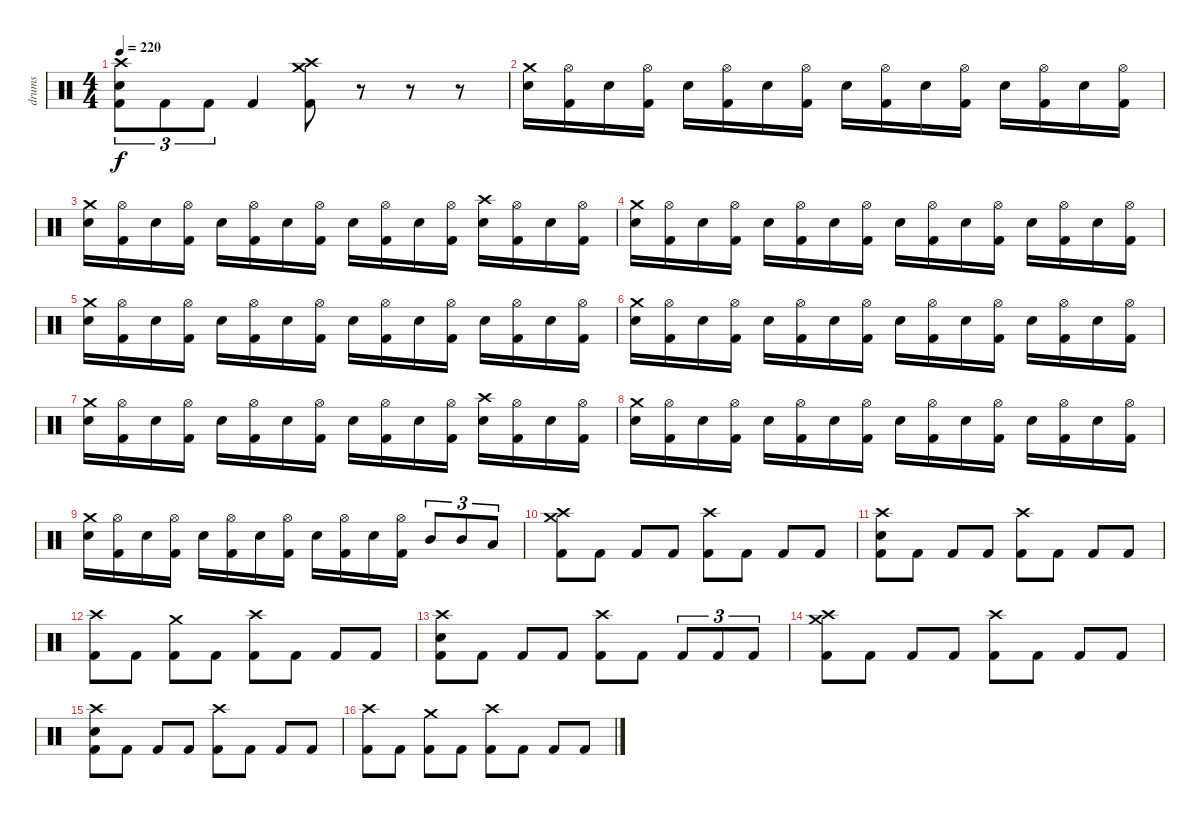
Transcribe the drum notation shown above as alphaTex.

\track ("drums" "drums") {instrument percussion}
\staff {score}
\articulation defaults
\ts (4 4)
\tempo 220
\clef neutral
\ks c
("Crash high (hit)" "Electric Snare (hit)" "Kick (hit) 2").8{tu (3 2) dy f} "Kick (hit) 2".8{tu (3 2)} "Kick (hit) 2".8{tu (3 2)} "Kick (hit) 2".4 ("Crash high (hit)" "Crash medium (hit)" "Kick (hit) 2").8 r.8 r.8 r.8 |
("Crash medium (hit)" "Electric Snare (hit)").16 ("Hi-Hat (open)" "Kick (hit) 2").16 "Electric Snare (hit)".16 ("Hi-Hat (open)" "Kick (hit) 2").16 "Electric Snare (hit)".16 ("Hi-Hat (open)" "Kick (hit) 2").16 "Electric Snare (hit)".16 ("Hi-Hat (open)" "Kick (hit) 2").16 "Electric Snare (hit)".16 ("Hi-Hat (open)" "Kick (hit) 2").16 "Electric Snare (hit)".16 ("Hi-Hat (open)" "Kick (hit) 2").16 "Electric Snare (hit)".16 ("Hi-Hat (open)" "Kick (hit) 2").16 "Electric Snare (hit)".16 ("Hi-Hat (open)" "Kick (hit) 2").16 |
("Crash medium (hit)" "Electric Snare (hit)").16 ("Hi-Hat (open)" "Kick (hit) 2").16 "Electric Snare (hit)".16 ("Hi-Hat (open)" "Kick (hit) 2").16 "Electric Snare (hit)".16 ("Hi-Hat (open)" "Kick (hit) 2").16 "Electric Snare (hit)".16 ("Hi-Hat (open)" "Kick (hit) 2").16 "Electric Snare (hit)".16 ("Hi-Hat (open)" "Kick (hit) 2").16 "Electric Snare (hit)".16 ("Hi-Hat (open)" "Kick (hit) 2").16 ("Crash high (hit)" "Electric Snare (hit)").16 ("Hi-Hat (open)" "Kick (hit) 2").16 "Electric Snare (hit)".16 ("Hi-Hat (open)" "Kick (hit) 2").16 |
("Crash medium (hit)" "Electric Snare (hit)").16 ("Hi-Hat (open)" "Kick (hit) 2").16 "Electric Snare (hit)".16 ("Hi-Hat (open)" "Kick (hit) 2").16 "Electric Snare (hit)".16 ("Hi-Hat (open)" "Kick (hit) 2").16 "Electric Snare (hit)".16 ("Hi-Hat (open)" "Kick (hit) 2").16 "Electric Snare (hit)".16 ("Hi-Hat (open)" "Kick (hit) 2").16 "Electric Snare (hit)".16 ("Hi-Hat (open)" "Kick (hit) 2").16 "Electric Snare (hit)".16 ("Hi-Hat (open)" "Kick (hit) 2").16 "Electric Snare (hit)".16 ("Hi-Hat (open)" "Kick (hit) 2").16 |
("Crash medium (hit)" "Electric Snare (hit)").16 ("Hi-Hat (open)" "Kick (hit) 2").16 "Electric Snare (hit)".16 ("Hi-Hat (open)" "Kick (hit) 2").16 "Electric Snare (hit)".16 ("Hi-Hat (open)" "Kick (hit) 2").16 "Electric Snare (hit)".16 ("Hi-Hat (open)" "Kick (hit) 2").16 "Electric Snare (hit)".16 ("Hi-Hat (open)" "Kick (hit) 2").16 "Electric Snare (hit)".16 ("Hi-Hat (open)" "Kick (hit) 2").16 "Electric Snare (hit)".16 ("Hi-Hat (open)" "Kick (hit) 2").16 "Electric Snare (hit)".16 ("Hi-Hat (open)" "Kick (hit) 2").16 |
("Crash medium (hit)" "Electric Snare (hit)").16 ("Hi-Hat (open)" "Kick (hit) 2").16 "Electric Snare (hit)".16 ("Hi-Hat (open)" "Kick (hit) 2").16 "Electric Snare (hit)".16 ("Hi-Hat (open)" "Kick (hit) 2").16 "Electric Snare (hit)".16 ("Hi-Hat (open)" "Kick (hit) 2").16 "Electric Snare (hit)".16 ("Hi-Hat (open)" "Kick (hit) 2").16 "Electric Snare (hit)".16 ("Hi-Hat (open)" "Kick (hit) 2").16 "Electric Snare (hit)".16 ("Hi-Hat (open)" "Kick (hit) 2").16 "Electric Snare (hit)".16 ("Hi-Hat (open)" "Kick (hit) 2").16 |
("Crash medium (hit)" "Electric Snare (hit)").16 ("Hi-Hat (open)" "Kick (hit) 2").16 "Electric Snare (hit)".16 ("Hi-Hat (open)" "Kick (hit) 2").16 "Electric Snare (hit)".16 ("Hi-Hat (open)" "Kick (hit) 2").16 "Electric Snare (hit)".16 ("Hi-Hat (open)" "Kick (hit) 2").16 "Electric Snare (hit)".16 ("Hi-Hat (open)" "Kick (hit) 2").16 "Electric Snare (hit)".16 ("Hi-Hat (open)" "Kick (hit) 2").16 ("Crash high (hit)" "Electric Snare (hit)").16 ("Hi-Hat (open)" "Kick (hit) 2").16 "Electric Snare (hit)".16 ("Hi-Hat (open)" "Kick (hit) 2").16 |
("Crash medium (hit)" "Electric Snare (hit)").16 ("Hi-Hat (open)" "Kick (hit) 2").16 "Electric Snare (hit)".16 ("Hi-Hat (open)" "Kick (hit) 2").16 "Electric Snare (hit)".16 ("Hi-Hat (open)" "Kick (hit) 2").16 "Electric Snare (hit)".16 ("Hi-Hat (open)" "Kick (hit) 2").16 "Electric Snare (hit)".16 ("Hi-Hat (open)" "Kick (hit) 2").16 "Electric Snare (hit)".16 ("Hi-Hat (open)" "Kick (hit) 2").16 "Electric Snare (hit)".16 ("Hi-Hat (open)" "Kick (hit) 2").16 "Electric Snare (hit)".16 ("Hi-Hat (open)" "Kick (hit) 2").16 |
("Crash medium (hit)" "Electric Snare (hit)").16 ("Hi-Hat (open)" "Kick (hit) 2").16 "Electric Snare (hit)".16 ("Hi-Hat (open)" "Kick (hit) 2").16 "Electric Snare (hit)".16 ("Hi-Hat (open)" "Kick (hit) 2").16 "Electric Snare (hit)".16 ("Hi-Hat (open)" "Kick (hit) 2").16 "Electric Snare (hit)".16 ("Hi-Hat (open)" "Kick (hit) 2").16 "Electric Snare (hit)".16 ("Hi-Hat (open)" "Kick (hit) 2").16 "Mid Tom (hit)".8{tu (3 2)} "Mid Tom (hit)".8{tu (3 2)} "Low Floor Tom (hit)".8{tu (3 2)} |
("Crash high (hit)" "Crash medium (hit)" "Kick (hit) 2").8 "Kick (hit) 2".8 "Kick (hit) 2".8 "Kick (hit) 2".8 ("Crash high (hit)" "Kick (hit) 2").8 "Kick (hit) 2".8 "Kick (hit) 2".8 "Kick (hit) 2".8 |
("Crash high (hit)" "Electric Snare (hit)" "Kick (hit) 2").8 "Kick (hit) 2".8 "Kick (hit) 2".8 "Kick (hit) 2".8 ("Crash high (hit)" "Kick (hit) 2").8 "Kick (hit) 2".8 "Kick (hit) 2".8 "Kick (hit) 2".8 |
("Crash high (hit)" "Kick (hit) 2").8 "Kick (hit) 2".8 ("Crash medium (hit)" "Kick (hit) 2").8 "Kick (hit) 2".8 ("Crash high (hit)" "Kick (hit) 2").8 "Kick (hit) 2".8 "Kick (hit) 2".8 "Kick (hit) 2".8 |
("Crash high (hit)" "Electric Snare (hit)" "Kick (hit) 2").8 "Kick (hit) 2".8 "Kick (hit) 2".8 "Kick (hit) 2".8 ("Crash high (hit)" "Kick (hit) 2").8 "Kick (hit) 2".8 "Kick (hit) 2".8{tu (3 2)} "Kick (hit) 2".8{tu (3 2)} "Kick (hit) 2".8{tu (3 2)} |
("Crash high (hit)" "Crash medium (hit)" "Kick (hit) 2").8 "Kick (hit) 2".8 "Kick (hit) 2".8 "Kick (hit) 2".8 ("Crash high (hit)" "Kick (hit) 2").8 "Kick (hit) 2".8 "Kick (hit) 2".8 "Kick (hit) 2".8 |
("Crash high (hit)" "Electric Snare (hit)" "Kick (hit) 2").8 "Kick (hit) 2".8 "Kick (hit) 2".8 "Kick (hit) 2".8 ("Crash high (hit)" "Kick (hit) 2").8 "Kick (hit) 2".8 "Kick (hit) 2".8 "Kick (hit) 2".8 |
("Crash high (hit)" "Kick (hit) 2").8 "Kick (hit) 2".8 ("Crash medium (hit)" "Kick (hit) 2").8 "Kick (hit) 2".8 ("Crash high (hit)" "Kick (hit) 2").8 "Kick (hit) 2".8 "Kick (hit) 2".8 "Kick (hit) 2".8
